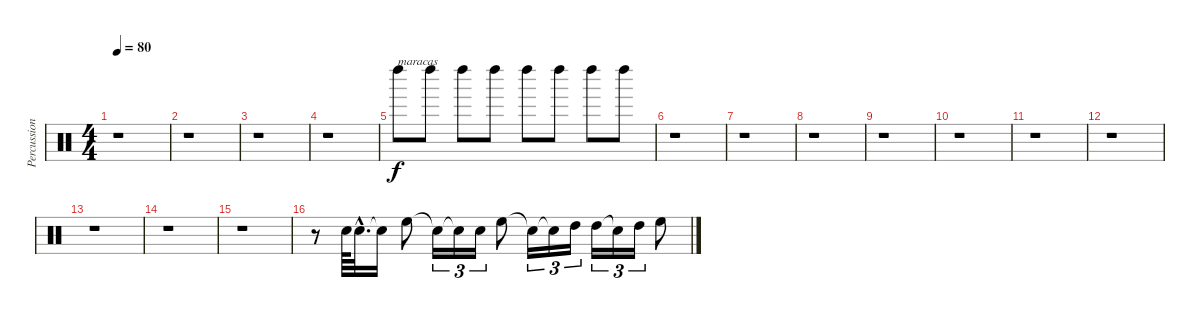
\track ("Percussion" "Percussion") {instrument percussion}
\staff {score}
\articulation defaults
\ts (4 4)
\tempo 80
\clef neutral
\ks c
r.1{dy f} |
r.1 |
r.1 |
r.1 |
"Left Maraca (hit)".8{txt "maracas"} "Left Maraca (hit)".8 "Left Maraca (hit)".8 "Left Maraca (hit)".8 "Left Maraca (hit)".8 "Left Maraca (hit)".8 "Left Maraca (hit)".8 "Left Maraca (hit)".8 |
r.1 |
r.1 |
r.1 |
r.1 |
r.1 |
r.1 |
r.1 |
r.1 |
r.1 |
r.1 |
r.8 "Snare (hit) 2".64 "Snare (hit) 2"{hac}.32{d} "Snare (hit)"{t}.16 "High Floor Tom (hit)".8 "Snare (hit)"{t}.16{tu (3 2)} "Snare (hit)"{t}.16{tu (3 2)} "Snare (hit) 2".16{tu (3 2)} "High Floor Tom (hit)".8 "Snare (hit)"{t}.16{tu (3 2)} "Snare (hit)"{t}.16{tu (3 2)} "High Tom (hit)".16{tu (3 2)} "High Tom (hit)".16{tu (3 2)} "Snare (hit)"{t}.16{tu (3 2)} "High Tom (hit)".16{tu (3 2)} "High Floor Tom (hit)".8
